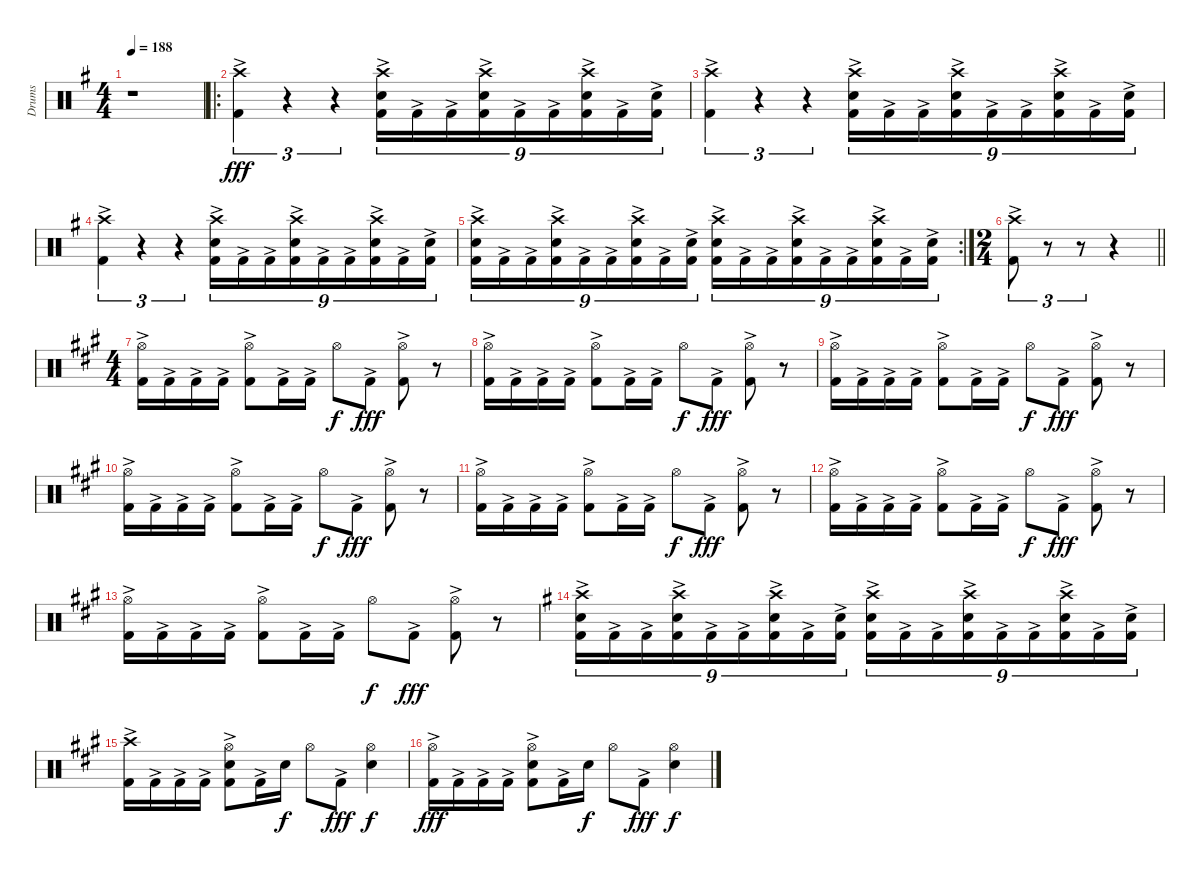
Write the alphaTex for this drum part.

\track ("Drums" "Drums") {instrument percussion}
\staff {score}
\articulation defaults
\ts (4 4)
\tempo 188
\clef neutral
\ks eminor
r.1{dy fff} |
\ro
("Crash high (hit)" "Kick (hit) 2"{ac}).4{tu (3 2)} r.4{tu (3 2)} r.4{tu (3 2)} ("Crash high (hit)" "Snare (hit) 2" "Kick (hit) 2"{ac}).16{tu (9 8)} "Kick (hit) 2"{ac}.16{tu (9 8)} "Kick (hit) 2"{ac}.16{tu (9 8)} ("Crash high (hit)" "Snare (hit) 2" "Kick (hit) 2"{ac}).16{tu (9 8)} "Kick (hit) 2"{ac}.16{tu (9 8)} "Kick (hit) 2"{ac}.16{tu (9 8)} ("Crash high (hit)" "Snare (hit) 2" "Kick (hit) 2"{ac}).16{tu (9 8)} "Kick (hit) 2"{ac}.16{tu (9 8)} ("Snare (hit) 2" "Kick (hit) 2"{ac}).16{tu (9 8)} |
("Crash high (hit)" "Kick (hit) 2"{ac}).4{tu (3 2)} r.4{tu (3 2)} r.4{tu (3 2)} ("Crash high (hit)" "Snare (hit) 2" "Kick (hit) 2"{ac}).16{tu (9 8)} "Kick (hit) 2"{ac}.16{tu (9 8)} "Kick (hit) 2"{ac}.16{tu (9 8)} ("Crash high (hit)" "Snare (hit) 2" "Kick (hit) 2"{ac}).16{tu (9 8)} "Kick (hit) 2"{ac}.16{tu (9 8)} "Kick (hit) 2"{ac}.16{tu (9 8)} ("Crash high (hit)" "Snare (hit) 2" "Kick (hit) 2"{ac}).16{tu (9 8)} "Kick (hit) 2"{ac}.16{tu (9 8)} ("Snare (hit) 2" "Kick (hit) 2"{ac}).16{tu (9 8)} |
("Crash high (hit)" "Kick (hit) 2"{ac}).4{tu (3 2)} r.4{tu (3 2)} r.4{tu (3 2)} ("Crash high (hit)" "Snare (hit) 2" "Kick (hit) 2"{ac}).16{tu (9 8)} "Kick (hit) 2"{ac}.16{tu (9 8)} "Kick (hit) 2"{ac}.16{tu (9 8)} ("Crash high (hit)" "Snare (hit) 2" "Kick (hit) 2"{ac}).16{tu (9 8)} "Kick (hit) 2"{ac}.16{tu (9 8)} "Kick (hit) 2"{ac}.16{tu (9 8)} ("Crash high (hit)" "Snare (hit) 2" "Kick (hit) 2"{ac}).16{tu (9 8)} "Kick (hit) 2"{ac}.16{tu (9 8)} ("Snare (hit) 2" "Kick (hit) 2"{ac}).16{tu (9 8)} |
\rc 2
("Crash high (hit)" "Snare (hit) 2" "Kick (hit) 2"{ac}).16{tu (9 8)} "Kick (hit) 2"{ac}.16{tu (9 8)} "Kick (hit) 2"{ac}.16{tu (9 8)} ("Crash high (hit)" "Snare (hit) 2" "Kick (hit) 2"{ac}).16{tu (9 8)} "Kick (hit) 2"{ac}.16{tu (9 8)} "Kick (hit) 2"{ac}.16{tu (9 8)} ("Crash high (hit)" "Snare (hit) 2" "Kick (hit) 2"{ac}).16{tu (9 8)} "Kick (hit) 2"{ac}.16{tu (9 8)} ("Snare (hit) 2" "Kick (hit) 2"{ac}).16{tu (9 8)} ("Crash high (hit)" "Snare (hit) 2" "Kick (hit) 2"{ac}).16{tu (9 8)} "Kick (hit) 2"{ac}.16{tu (9 8)} "Kick (hit) 2"{ac}.16{tu (9 8)} ("Crash high (hit)" "Snare (hit) 2" "Kick (hit) 2"{ac}).16{tu (9 8)} "Kick (hit) 2"{ac}.16{tu (9 8)} "Kick (hit) 2"{ac}.16{tu (9 8)} ("Crash high (hit)" "Snare (hit) 2" "Kick (hit) 2"{ac}).16{tu (9 8)} "Kick (hit) 2"{ac}.16{tu (9 8)} ("Snare (hit) 2" "Kick (hit) 2"{ac}).16{tu (9 8)} |
\ts (2 4)
\barLineRight lightlight
("Crash high (hit)" "Kick (hit) 2"{ac}).8{tu (3 2)} r.8{tu (3 2)} r.8{tu (3 2)} r.4 |
\ts (4 4)
\ks f#minor
("Hi-Hat (open)" "Kick (hit) 2"{ac}).16 "Kick (hit) 2"{ac}.16 "Kick (hit) 2"{ac}.16 "Kick (hit) 2"{ac}.16 ("Hi-Hat (open)" "Kick (hit) 2"{ac}).8 "Kick (hit) 2"{ac}.16 "Kick (hit) 2"{ac}.16 "Hi-Hat (open)".8{dy f} "Kick (hit) 2"{ac}.8{dy fff} ("Hi-Hat (open)" "Kick (hit) 2"{ac}).8 r.8 |
("Hi-Hat (open)" "Kick (hit) 2"{ac}).16 "Kick (hit) 2"{ac}.16 "Kick (hit) 2"{ac}.16 "Kick (hit) 2"{ac}.16 ("Hi-Hat (open)" "Kick (hit) 2"{ac}).8 "Kick (hit) 2"{ac}.16 "Kick (hit) 2"{ac}.16 "Hi-Hat (open)".8{dy f} "Kick (hit) 2"{ac}.8{dy fff} ("Hi-Hat (open)" "Kick (hit) 2"{ac}).8 r.8 |
("Hi-Hat (open)" "Kick (hit) 2"{ac}).16 "Kick (hit) 2"{ac}.16 "Kick (hit) 2"{ac}.16 "Kick (hit) 2"{ac}.16 ("Hi-Hat (open)" "Kick (hit) 2"{ac}).8 "Kick (hit) 2"{ac}.16 "Kick (hit) 2"{ac}.16 "Hi-Hat (open)".8{dy f} "Kick (hit) 2"{ac}.8{dy fff} ("Hi-Hat (open)" "Kick (hit) 2"{ac}).8 r.8 |
("Hi-Hat (open)" "Kick (hit) 2"{ac}).16 "Kick (hit) 2"{ac}.16 "Kick (hit) 2"{ac}.16 "Kick (hit) 2"{ac}.16 ("Hi-Hat (open)" "Kick (hit) 2"{ac}).8 "Kick (hit) 2"{ac}.16 "Kick (hit) 2"{ac}.16 "Hi-Hat (open)".8{dy f} "Kick (hit) 2"{ac}.8{dy fff} ("Hi-Hat (open)" "Kick (hit) 2"{ac}).8 r.8 |
("Hi-Hat (open)" "Kick (hit) 2"{ac}).16 "Kick (hit) 2"{ac}.16 "Kick (hit) 2"{ac}.16 "Kick (hit) 2"{ac}.16 ("Hi-Hat (open)" "Kick (hit) 2"{ac}).8 "Kick (hit) 2"{ac}.16 "Kick (hit) 2"{ac}.16 "Hi-Hat (open)".8{dy f} "Kick (hit) 2"{ac}.8{dy fff} ("Hi-Hat (open)" "Kick (hit) 2"{ac}).8 r.8 |
("Hi-Hat (open)" "Kick (hit) 2"{ac}).16 "Kick (hit) 2"{ac}.16 "Kick (hit) 2"{ac}.16 "Kick (hit) 2"{ac}.16 ("Hi-Hat (open)" "Kick (hit) 2"{ac}).8 "Kick (hit) 2"{ac}.16 "Kick (hit) 2"{ac}.16 "Hi-Hat (open)".8{dy f} "Kick (hit) 2"{ac}.8{dy fff} ("Hi-Hat (open)" "Kick (hit) 2"{ac}).8 r.8 |
("Hi-Hat (open)" "Kick (hit) 2"{ac}).16 "Kick (hit) 2"{ac}.16 "Kick (hit) 2"{ac}.16 "Kick (hit) 2"{ac}.16 ("Hi-Hat (open)" "Kick (hit) 2"{ac}).8 "Kick (hit) 2"{ac}.16 "Kick (hit) 2"{ac}.16 "Hi-Hat (open)".8{dy f} "Kick (hit) 2"{ac}.8{dy fff} ("Hi-Hat (open)" "Kick (hit) 2"{ac}).8 r.8 |
\ks eminor
("Crash high (hit)" "Snare (hit) 2" "Kick (hit) 2"{ac}).16{tu (9 8)} "Kick (hit) 2"{ac}.16{tu (9 8)} "Kick (hit) 2"{ac}.16{tu (9 8)} ("Crash high (hit)" "Snare (hit) 2" "Kick (hit) 2"{ac}).16{tu (9 8)} "Kick (hit) 2"{ac}.16{tu (9 8)} "Kick (hit) 2"{ac}.16{tu (9 8)} ("Crash high (hit)" "Snare (hit) 2" "Kick (hit) 2"{ac}).16{tu (9 8)} "Kick (hit) 2"{ac}.16{tu (9 8)} ("Snare (hit) 2" "Kick (hit) 2"{ac}).16{tu (9 8)} ("Crash high (hit)" "Snare (hit) 2" "Kick (hit) 2"{ac}).16{tu (9 8)} "Kick (hit) 2"{ac}.16{tu (9 8)} "Kick (hit) 2"{ac}.16{tu (9 8)} ("Crash high (hit)" "Snare (hit) 2" "Kick (hit) 2"{ac}).16{tu (9 8)} "Kick (hit) 2"{ac}.16{tu (9 8)} "Kick (hit) 2"{ac}.16{tu (9 8)} ("Crash high (hit)" "Snare (hit) 2" "Kick (hit) 2"{ac}).16{tu (9 8)} "Kick (hit) 2"{ac}.16{tu (9 8)} ("Snare (hit) 2" "Kick (hit) 2"{ac}).16{tu (9 8)} |
\ks f#minor
("Crash high (hit)" "Kick (hit) 2"{ac}).16 "Kick (hit) 2"{ac}.16 "Kick (hit) 2"{ac}.16 "Kick (hit) 2"{ac}.16 ("Hi-Hat (open)" "Snare (hit) 2" "Kick (hit) 2"{ac}).8 "Kick (hit) 2"{ac}.16 "Snare (hit) 2".16{dy f} "Hi-Hat (open)".8 "Kick (hit) 2"{ac}.8{dy fff} ("Hi-Hat (open)" "Snare (hit) 2").4{dy f} |
("Hi-Hat (open)" "Kick (hit) 2"{ac}).16{dy fff} "Kick (hit) 2"{ac}.16 "Kick (hit) 2"{ac}.16 "Kick (hit) 2"{ac}.16 ("Hi-Hat (open)" "Snare (hit) 2" "Kick (hit) 2"{ac}).8 "Kick (hit) 2"{ac}.16 "Snare (hit) 2".16{dy f} "Hi-Hat (open)".8 "Kick (hit) 2"{ac}.8{dy fff} ("Hi-Hat (open)" "Snare (hit) 2").4{dy f}
